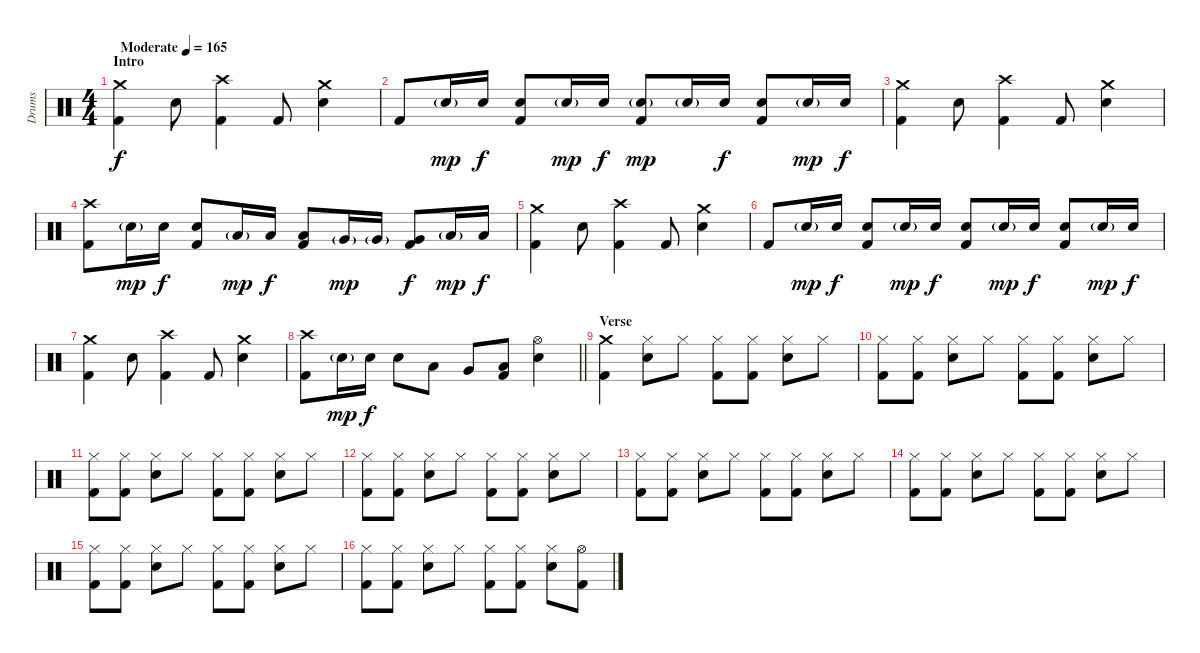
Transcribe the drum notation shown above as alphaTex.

\track ("Drums" "Drums") {instrument percussion}
\staff {score}
\articulation defaults
\ts (4 4)
\section ("" "Intro")
\tempo (165 "Moderate")
\clef neutral
\ks c
("Crash medium (hit)" "Kick (hit) 2").4{dy f} "Electric Snare (hit)".8 ("Crash high (hit)" "Kick (hit) 2").4 "Kick (hit) 2".8 ("Crash medium (hit)" "Electric Snare (hit)").4 |
"Kick (hit) 2".8 "Electric Snare (hit)"{g}.16{dy mp} "Electric Snare (hit)".16{dy f} ("Electric Snare (hit)" "Kick (hit) 2").8 "Electric Snare (hit)"{g}.16{dy mp} "Electric Snare (hit)".16{dy f} ("Electric Snare (hit)"{g} "Kick (hit) 2").8{dy mp} "Electric Snare (hit)"{g}.16 "Electric Snare (hit)".16{dy f} ("Electric Snare (hit)" "Kick (hit) 2").8 "Electric Snare (hit)"{g}.16{dy mp} "Electric Snare (hit)".16{dy f} |
("Crash medium (hit)" "Kick (hit) 2").4 "Electric Snare (hit)".8 ("Crash high (hit)" "Kick (hit) 2").4 "Kick (hit) 2".8 ("Crash medium (hit)" "Electric Snare (hit)").4 |
("Crash high (hit)" "Kick (hit) 2").8 "Electric Snare (hit)"{g}.16{dy mp} "Electric Snare (hit)".16{dy f} ("Electric Snare (hit)" "Kick (hit) 2").8 "Low Tom (hit)"{g}.16{dy mp} "Low Tom (hit)".16{dy f} ("Low Tom (hit)" "Kick (hit) 2").8 "Very Low Tom (hit)"{g}.16{dy mp} "Very Low Tom (hit)"{g}.16 ("Very Low Tom (hit)" "Kick (hit) 2").8{dy f} "Low Floor Tom (hit)"{g}.16{dy mp} "Low Floor Tom (hit)".16{dy f} |
("Crash medium (hit)" "Kick (hit) 2").4 "Electric Snare (hit)".8 ("Crash high (hit)" "Kick (hit) 2").4 "Kick (hit) 2".8 ("Crash medium (hit)" "Electric Snare (hit)").4 |
"Kick (hit) 2".8 "Electric Snare (hit)"{g}.16{dy mp} "Electric Snare (hit)".16{dy f} ("Electric Snare (hit)" "Kick (hit) 2").8 "Electric Snare (hit)"{g}.16{dy mp} "Electric Snare (hit)".16{dy f} ("Electric Snare (hit)" "Kick (hit) 2").8 "Electric Snare (hit)"{g}.16{dy mp} "Electric Snare (hit)".16{dy f} ("Electric Snare (hit)" "Kick (hit) 2").8 "Electric Snare (hit)"{g}.16{dy mp} "Electric Snare (hit)".16{dy f} |
("Crash medium (hit)" "Kick (hit) 2").4 "Electric Snare (hit)".8 ("Crash high (hit)" "Kick (hit) 2").4 "Kick (hit) 2".8 ("Crash medium (hit)" "Electric Snare (hit)").4 |
\barLineRight lightlight
("Crash high (hit)" "Kick (hit) 2").8 "Electric Snare (hit)"{g}.16{dy mp} "Electric Snare (hit)".16{dy f} "Electric Snare (hit)".8 "Low Tom (hit)".8 "Very Low Tom (hit)".8 ("Low Floor Tom (hit)" "Kick (hit) 2").8 ("Hi-Hat (open)" "Electric Snare (hit)").4 |
\section ("" "Verse")
("Crash medium (hit)" "Kick (hit) 2").4 ("Hi-Hat (closed)" "Electric Snare (hit)").8 "Hi-Hat (closed)".8 ("Hi-Hat (closed)" "Kick (hit) 2").8 ("Hi-Hat (closed)" "Kick (hit) 2").8 ("Hi-Hat (closed)" "Electric Snare (hit)").8 "Hi-Hat (closed)".8 |
("Hi-Hat (closed)" "Kick (hit) 2").8 ("Hi-Hat (closed)" "Kick (hit) 2").8 ("Hi-Hat (closed)" "Electric Snare (hit)").8 "Hi-Hat (closed)".8 ("Hi-Hat (closed)" "Kick (hit) 2").8 ("Hi-Hat (closed)" "Kick (hit) 2").8 ("Hi-Hat (closed)" "Electric Snare (hit)").8 "Hi-Hat (closed)".8 |
("Hi-Hat (closed)" "Kick (hit) 2").8 ("Hi-Hat (closed)" "Kick (hit) 2").8 ("Hi-Hat (closed)" "Electric Snare (hit)").8 "Hi-Hat (closed)".8 ("Hi-Hat (closed)" "Kick (hit) 2").8 ("Hi-Hat (closed)" "Kick (hit) 2").8 ("Hi-Hat (closed)" "Electric Snare (hit)").8 "Hi-Hat (closed)".8 |
("Hi-Hat (closed)" "Kick (hit) 2").8 ("Hi-Hat (closed)" "Kick (hit) 2").8 ("Hi-Hat (closed)" "Electric Snare (hit)").8 "Hi-Hat (closed)".8 ("Hi-Hat (closed)" "Kick (hit) 2").8 ("Hi-Hat (closed)" "Kick (hit) 2").8 ("Hi-Hat (closed)" "Electric Snare (hit)").8 "Hi-Hat (closed)".8 |
("Hi-Hat (closed)" "Kick (hit) 2").8 ("Hi-Hat (closed)" "Kick (hit) 2").8 ("Hi-Hat (closed)" "Electric Snare (hit)").8 "Hi-Hat (closed)".8 ("Hi-Hat (closed)" "Kick (hit) 2").8 ("Hi-Hat (closed)" "Kick (hit) 2").8 ("Hi-Hat (closed)" "Electric Snare (hit)").8 "Hi-Hat (closed)".8 |
("Hi-Hat (closed)" "Kick (hit) 2").8 ("Hi-Hat (closed)" "Kick (hit) 2").8 ("Hi-Hat (closed)" "Electric Snare (hit)").8 "Hi-Hat (closed)".8 ("Hi-Hat (closed)" "Kick (hit) 2").8 ("Hi-Hat (closed)" "Kick (hit) 2").8 ("Hi-Hat (closed)" "Electric Snare (hit)").8 "Hi-Hat (closed)".8 |
("Hi-Hat (closed)" "Kick (hit) 2").8 ("Hi-Hat (closed)" "Kick (hit) 2").8 ("Hi-Hat (closed)" "Electric Snare (hit)").8 "Hi-Hat (closed)".8 ("Hi-Hat (closed)" "Kick (hit) 2").8 ("Hi-Hat (closed)" "Kick (hit) 2").8 ("Hi-Hat (closed)" "Electric Snare (hit)").8 "Hi-Hat (closed)".8 |
("Hi-Hat (closed)" "Kick (hit) 2").8 ("Hi-Hat (closed)" "Kick (hit) 2").8 ("Hi-Hat (closed)" "Electric Snare (hit)").8 "Hi-Hat (closed)".8 ("Hi-Hat (closed)" "Kick (hit) 2").8 ("Hi-Hat (closed)" "Kick (hit) 2").8 ("Hi-Hat (closed)" "Electric Snare (hit)").8 ("Hi-Hat (open)" "Kick (hit) 2").8
